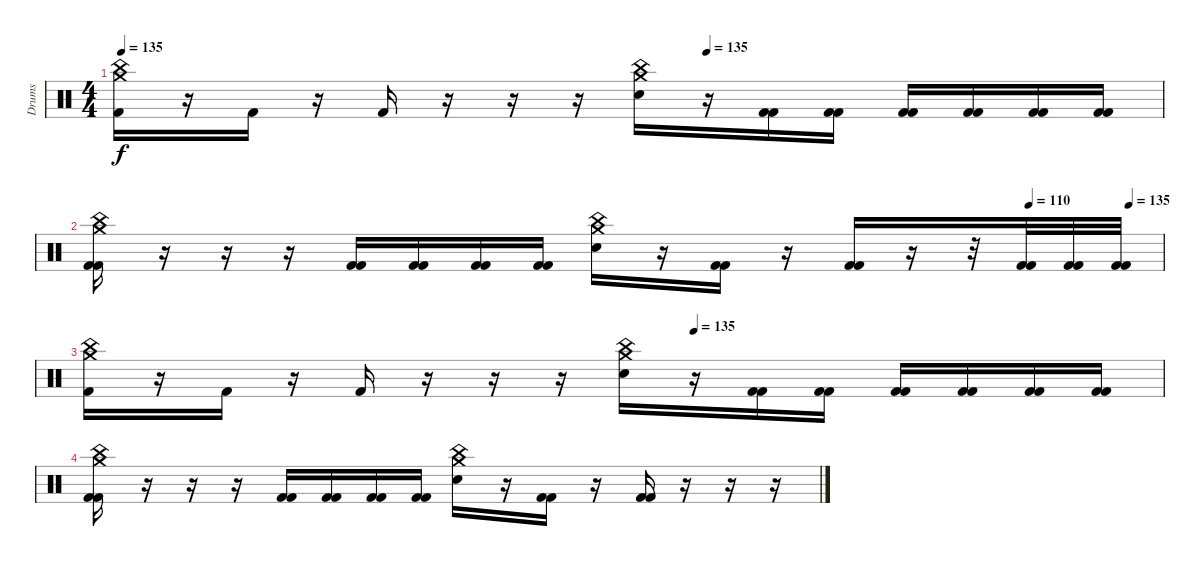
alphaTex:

\track ("Drums" "Drums") {instrument percussion}
\staff {score}
\articulation defaults
\ts (4 4)
\tempo 135
\tempo (135 0.5625)
\clef neutral
\ks c
("Crash medium (hit)" "China (hit)" "Kick (hit) 2").16{dy f} r.16 "Kick (hit) 2".16 r.16 "Kick (hit) 2".16 r.16 r.16 r.16 ("Crash medium (hit)" "China (hit)" "Snare (hit) 2").16 r.16 ("Kick (hit) 2" "Kick (hit) 2").16 ("Kick (hit) 2" "Kick (hit) 2").16 ("Kick (hit) 2" "Kick (hit) 2").16 ("Kick (hit) 2" "Kick (hit) 2").16 ("Kick (hit) 2" "Kick (hit) 2").16 ("Kick (hit) 2" "Kick (hit) 2").16 |
\tempo (110 0.875)
\tempo (135 0.96875)
("Kick (hit) 2" "Crash medium (hit)" "China (hit)" "Kick (hit) 2").16 r.16 r.16 r.16 ("Kick (hit) 2" "Kick (hit) 2").16 ("Kick (hit) 2" "Kick (hit) 2").16 ("Kick (hit) 2" "Kick (hit) 2").16 ("Kick (hit) 2" "Kick (hit) 2").16 ("China (hit)" "Crash medium (hit)" "Snare (hit) 2").16 r.16 ("Kick (hit) 2" "Kick (hit) 2").16 r.16 ("Kick (hit) 2" "Kick (hit) 2").16 r.16 r.32 ("Kick (hit) 2" "Kick (hit) 2").32 ("Kick (hit) 2" "Kick (hit) 2").32 ("Kick (hit) 2" "Kick (hit) 2").32 |
\tempo (135 0.5625)
("Crash medium (hit)" "China (hit)" "Kick (hit) 2").16 r.16 "Kick (hit) 2".16 r.16 "Kick (hit) 2".16 r.16 r.16 r.16 ("Crash medium (hit)" "China (hit)" "Snare (hit) 2").16 r.16 ("Kick (hit) 2" "Kick (hit) 2").16 ("Kick (hit) 2" "Kick (hit) 2").16 ("Kick (hit) 2" "Kick (hit) 2").16 ("Kick (hit) 2" "Kick (hit) 2").16 ("Kick (hit) 2" "Kick (hit) 2").16 ("Kick (hit) 2" "Kick (hit) 2").16 |
("Kick (hit) 2" "Crash medium (hit)" "China (hit)" "Kick (hit) 2").16 r.16 r.16 r.16 ("Kick (hit) 2" "Kick (hit) 2").16 ("Kick (hit) 2" "Kick (hit) 2").16 ("Kick (hit) 2" "Kick (hit) 2").16 ("Kick (hit) 2" "Kick (hit) 2").16 ("China (hit)" "Crash medium (hit)" "Snare (hit) 2").16 r.16 ("Kick (hit) 2" "Kick (hit) 2").16 r.16 ("Kick (hit) 2" "Kick (hit) 2").16 r.16 r.16 r.16
